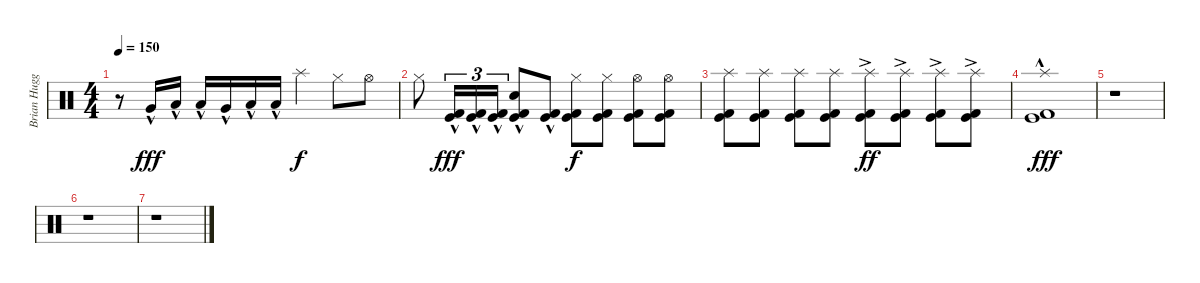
\track ("Brian Huggins (Drums)" "Brian Hugg") {instrument percussion}
\staff {score}
\articulation defaults
\ts (4 4)
\tempo 150
\clef neutral
\ks c
r.8{dy f} "Very Low Tom (hit)"{hac}.16{dy fff} "Low Tom (hit)"{hac}.16 "Low Tom (hit)"{hac}.16 "Very Low Tom (hit)"{hac}.16 "Low Floor Tom (hit)"{hac}.16 "Low Floor Tom (hit)"{hac}.16 "Splash (hit)".4{dy f} "Hi-Hat (closed)".8 "Hi-Hat (open)".8 |
"Hi-Hat (closed)".8 ("Kick (hit)"{hac} "Kick (hit) 2"{hac}).16{tu (3 2) dy fff} ("Kick (hit)"{hac} "Kick (hit) 2"{hac}).16{tu (3 2)} ("Kick (hit)"{hac} "Kick (hit) 2"{hac}).16{tu (3 2)} ("Snare (hit) 2"{hac} "Kick (hit)"{hac} "Kick (hit) 2"{hac}).8 ("Kick (hit)"{hac} "Kick (hit) 2"{hac}).8 ("Hi-Hat (closed)" "Kick (hit)" "Kick (hit) 2").8{dy f} ("Hi-Hat (closed)" "Kick (hit)" "Kick (hit) 2").8 ("Hi-Hat (open)" "Kick (hit)" "Kick (hit) 2").8 ("Hi-Hat (open)" "Kick (hit)" "Kick (hit) 2").8 |
("Splash (hit)" "Kick (hit)" "Kick (hit) 2").8 ("Splash (hit)" "Kick (hit)" "Kick (hit) 2").8 ("Splash (hit)" "Kick (hit)" "Kick (hit) 2").8 ("Splash (hit)" "Kick (hit)" "Kick (hit) 2").8 ("Splash (hit)"{ac} "Kick (hit)" "Kick (hit) 2").8{dy ff} ("Splash (hit)"{ac} "Kick (hit)" "Kick (hit) 2").8 ("Splash (hit)"{ac} "Kick (hit)" "Kick (hit) 2").8 ("Splash (hit)"{ac} "Kick (hit)" "Kick (hit) 2").8 |
("Splash (hit)"{hac} "Kick (hit)" "Kick (hit) 2").1{dy fff} |
r.1 |
r.1 |
r.1
